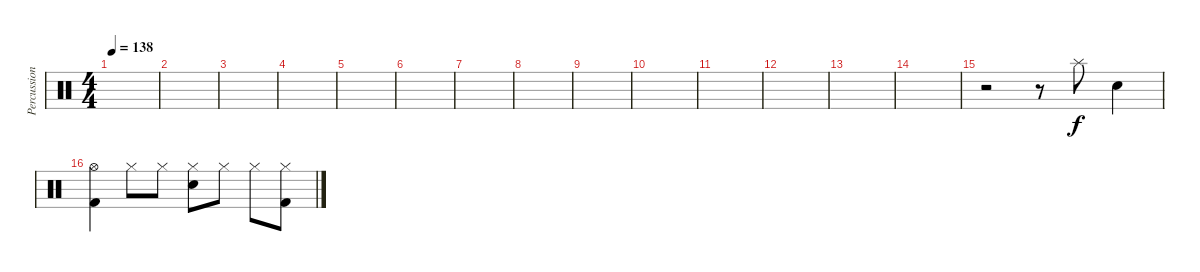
\track ("Percussion" "Percussion") {instrument percussion}
\staff {score}
\articulation defaults
\ts (4 4)
\tempo 138
\clef neutral
\ks c
|
|
|
|
|
|
|
|
|
|
|
|
|
|
r.2 r.8 "Splash (hit)".8 "Electric Snare (hit)".4 |
("Hi-Hat (open)" "Kick (hit) 2").4 "Hi-Hat (closed)".8 "Hi-Hat (closed)".8 ("Hi-Hat (closed)" "Electric Snare (hit)").8 "Hi-Hat (closed)".8 "Hi-Hat (closed)".8 ("Hi-Hat (closed)" "Kick (hit) 2").8
